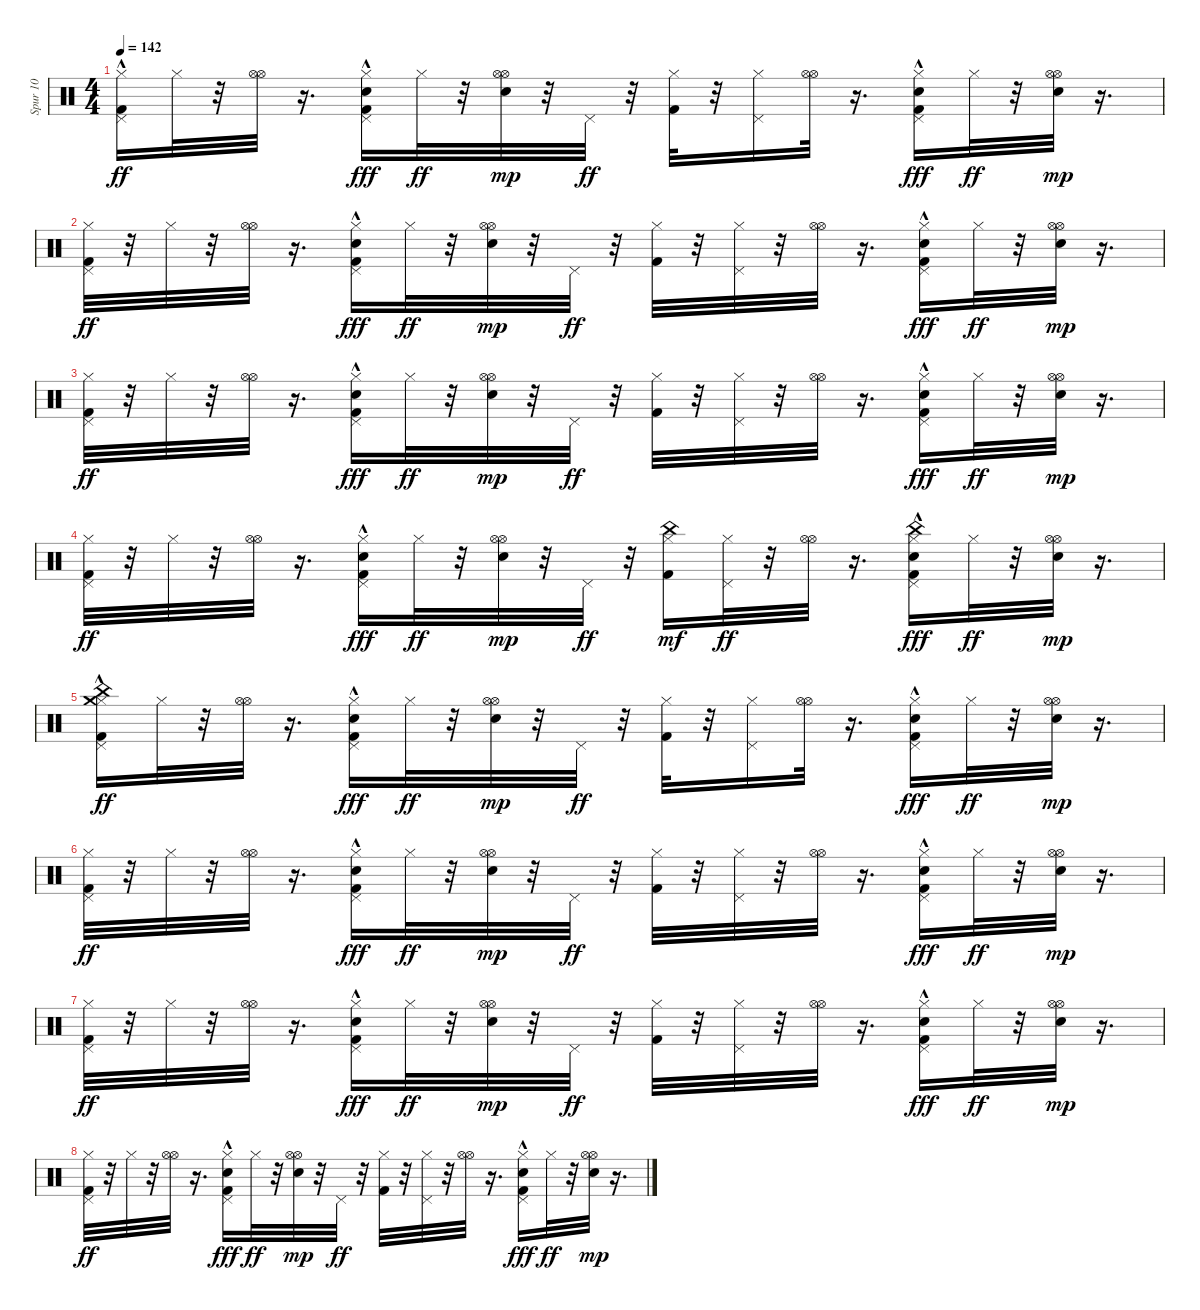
\track ("Spur 10" "Spur 10") {instrument percussion}
\staff {score}
\articulation defaults
\ts (4 4)
\tempo 142
\clef neutral
\ks c
("Kick (hit) 2"{hac} "Hi-Hat (closed)" "Pedal Hi-Hat (hit)").16{dy ff} "Hi-Hat (closed)".32 r.32 ("Hi-Hat (open)" "Hi-Hat (open)").32 r.16{d} ("Kick (hit) 2" "Hi-Hat (closed)" "Pedal Hi-Hat (hit)" "Hand Clap (hit)"{hac}).16{dy fff balance 16} "Hi-Hat (closed)".32{dy ff} r.32 ("Hi-Hat (open)" "Hi-Hat (open)" "Hand Clap (hit)").32{dy mp balance 0} r.32 "Pedal Hi-Hat (hit)".32{dy ff} r.32 ("Kick (hit) 2" "Hi-Hat (closed)").32 r.32 ("Hi-Hat (closed)" "Pedal Hi-Hat (hit)").16 ("Hi-Hat (open)" "Hi-Hat (open)").32 r.16{d} ("Kick (hit) 2" "Hi-Hat (closed)" "Pedal Hi-Hat (hit)" "Hand Clap (hit)"{hac}).16{dy fff balance 16} "Hi-Hat (closed)".32{dy ff} r.32 ("Hi-Hat (open)" "Hi-Hat (open)" "Hand Clap (hit)").32{dy mp balance 0} r.16{d} |
("Kick (hit) 2" "Hi-Hat (closed)" "Pedal Hi-Hat (hit)").32{dy ff} r.32 "Hi-Hat (closed)".32 r.32 ("Hi-Hat (open)" "Hi-Hat (open)").32 r.16{d} ("Kick (hit) 2" "Hi-Hat (closed)" "Pedal Hi-Hat (hit)" "Hand Clap (hit)"{hac}).16{dy fff balance 16} "Hi-Hat (closed)".32{dy ff} r.32 ("Hi-Hat (open)" "Hi-Hat (open)" "Hand Clap (hit)").32{dy mp balance 0} r.32 "Pedal Hi-Hat (hit)".32{dy ff} r.32 ("Kick (hit) 2" "Hi-Hat (closed)").32 r.32 ("Hi-Hat (closed)" "Pedal Hi-Hat (hit)").32 r.32 ("Hi-Hat (open)" "Hi-Hat (open)").32 r.16{d} ("Kick (hit) 2" "Hi-Hat (closed)" "Pedal Hi-Hat (hit)" "Hand Clap (hit)"{hac}).16{dy fff balance 16} "Hi-Hat (closed)".32{dy ff} r.32 ("Hi-Hat (open)" "Hi-Hat (open)" "Hand Clap (hit)").32{dy mp balance 0} r.16{d} |
("Kick (hit) 2" "Hi-Hat (closed)" "Pedal Hi-Hat (hit)").32{dy ff} r.32 "Hi-Hat (closed)".32 r.32 ("Hi-Hat (open)" "Hi-Hat (open)").32 r.16{d} ("Kick (hit) 2" "Hi-Hat (closed)" "Pedal Hi-Hat (hit)" "Hand Clap (hit)"{hac}).16{dy fff balance 16} "Hi-Hat (closed)".32{dy ff} r.32 ("Hi-Hat (open)" "Hi-Hat (open)" "Hand Clap (hit)").32{dy mp balance 0} r.32 "Pedal Hi-Hat (hit)".32{dy ff} r.32 ("Kick (hit) 2" "Hi-Hat (closed)").32 r.32 ("Hi-Hat (closed)" "Pedal Hi-Hat (hit)").32 r.32 ("Hi-Hat (open)" "Hi-Hat (open)").32 r.16{d} ("Kick (hit) 2" "Hi-Hat (closed)" "Pedal Hi-Hat (hit)" "Hand Clap (hit)"{hac}).16{dy fff balance 16} "Hi-Hat (closed)".32{dy ff} r.32 ("Hi-Hat (open)" "Hi-Hat (open)" "Hand Clap (hit)").32{dy mp balance 0} r.16{d} |
("Kick (hit) 2" "Hi-Hat (closed)" "Pedal Hi-Hat (hit)").32{dy ff} r.32 "Hi-Hat (closed)".32 r.32 ("Hi-Hat (open)" "Hi-Hat (open)").32 r.16{d} ("Kick (hit) 2" "Hi-Hat (closed)" "Pedal Hi-Hat (hit)" "Hand Clap (hit)"{hac}).16{dy fff balance 16} "Hi-Hat (closed)".32{dy ff} r.32 ("Hi-Hat (open)" "Hi-Hat (open)" "Hand Clap (hit)").32{dy mp balance 0} r.32 "Pedal Hi-Hat (hit)".32{dy ff} r.32 ("Kick (hit) 2" "Hi-Hat (closed)" "China (hit)").16{dy mf} ("Hi-Hat (closed)" "Pedal Hi-Hat (hit)").32{dy ff} r.32 ("Hi-Hat (open)" "Hi-Hat (open)").32 r.16{d} ("Kick (hit) 2" "Hi-Hat (closed)" "Pedal Hi-Hat (hit)" "China (hit)" "Hand Clap (hit)"{hac}).16{dy fff balance 16} "Hi-Hat (closed)".32{dy ff} r.32 ("Hi-Hat (open)" "Hi-Hat (open)" "Hand Clap (hit)").32{dy mp balance 0} r.16{d} |
("Kick (hit) 2"{hac} "Hi-Hat (closed)" "Pedal Hi-Hat (hit)" "China (hit)" "Crash medium (hit)").16{dy ff} "Hi-Hat (closed)".32 r.32 ("Hi-Hat (open)" "Hi-Hat (open)").32 r.16{d} ("Kick (hit) 2" "Hi-Hat (closed)" "Pedal Hi-Hat (hit)" "Hand Clap (hit)"{hac}).16{dy fff balance 16} "Hi-Hat (closed)".32{dy ff} r.32 ("Hi-Hat (open)" "Hi-Hat (open)" "Hand Clap (hit)").32{dy mp balance 0} r.32 "Pedal Hi-Hat (hit)".32{dy ff} r.32 ("Kick (hit) 2" "Hi-Hat (closed)").32 r.32 ("Hi-Hat (closed)" "Pedal Hi-Hat (hit)").16 ("Hi-Hat (open)" "Hi-Hat (open)").32 r.16{d} ("Kick (hit) 2" "Hi-Hat (closed)" "Pedal Hi-Hat (hit)" "Hand Clap (hit)"{hac}).16{dy fff balance 16} "Hi-Hat (closed)".32{dy ff} r.32 ("Hi-Hat (open)" "Hi-Hat (open)" "Hand Clap (hit)").32{dy mp balance 0} r.16{d} |
("Kick (hit) 2" "Hi-Hat (closed)" "Pedal Hi-Hat (hit)").32{dy ff} r.32 "Hi-Hat (closed)".32 r.32 ("Hi-Hat (open)" "Hi-Hat (open)").32 r.16{d} ("Kick (hit) 2" "Hi-Hat (closed)" "Pedal Hi-Hat (hit)" "Hand Clap (hit)"{hac}).16{dy fff balance 16} "Hi-Hat (closed)".32{dy ff} r.32 ("Hi-Hat (open)" "Hi-Hat (open)" "Hand Clap (hit)").32{dy mp balance 0} r.32 "Pedal Hi-Hat (hit)".32{dy ff} r.32 ("Kick (hit) 2" "Hi-Hat (closed)").32 r.32 ("Hi-Hat (closed)" "Pedal Hi-Hat (hit)").32 r.32 ("Hi-Hat (open)" "Hi-Hat (open)").32 r.16{d} ("Kick (hit) 2" "Hi-Hat (closed)" "Pedal Hi-Hat (hit)" "Hand Clap (hit)"{hac}).16{dy fff balance 16} "Hi-Hat (closed)".32{dy ff} r.32 ("Hi-Hat (open)" "Hi-Hat (open)" "Hand Clap (hit)").32{dy mp balance 0} r.16{d} |
("Kick (hit) 2" "Hi-Hat (closed)" "Pedal Hi-Hat (hit)").32{dy ff} r.32 "Hi-Hat (closed)".32 r.32 ("Hi-Hat (open)" "Hi-Hat (open)").32 r.16{d} ("Kick (hit) 2" "Hi-Hat (closed)" "Pedal Hi-Hat (hit)" "Hand Clap (hit)"{hac}).16{dy fff balance 16} "Hi-Hat (closed)".32{dy ff} r.32 ("Hi-Hat (open)" "Hi-Hat (open)" "Hand Clap (hit)").32{dy mp balance 0} r.32 "Pedal Hi-Hat (hit)".32{dy ff} r.32 ("Kick (hit) 2" "Hi-Hat (closed)").32 r.32 ("Hi-Hat (closed)" "Pedal Hi-Hat (hit)").32 r.32 ("Hi-Hat (open)" "Hi-Hat (open)").32 r.16{d} ("Kick (hit) 2" "Hi-Hat (closed)" "Pedal Hi-Hat (hit)" "Hand Clap (hit)"{hac}).16{dy fff balance 16} "Hi-Hat (closed)".32{dy ff} r.32 ("Hi-Hat (open)" "Hi-Hat (open)" "Hand Clap (hit)").32{dy mp balance 0} r.16{d} |
("Kick (hit) 2" "Hi-Hat (closed)" "Pedal Hi-Hat (hit)").32{dy ff} r.32 "Hi-Hat (closed)".32 r.32 ("Hi-Hat (open)" "Hi-Hat (open)").32 r.16{d} ("Kick (hit) 2" "Hi-Hat (closed)" "Pedal Hi-Hat (hit)" "Hand Clap (hit)"{hac}).16{dy fff balance 16} "Hi-Hat (closed)".32{dy ff} r.32 ("Hi-Hat (open)" "Hi-Hat (open)" "Hand Clap (hit)").32{dy mp balance 0} r.32 "Pedal Hi-Hat (hit)".32{dy ff} r.32 ("Kick (hit) 2" "Hi-Hat (closed)").32 r.32 ("Hi-Hat (closed)" "Pedal Hi-Hat (hit)").32 r.32 ("Hi-Hat (open)" "Hi-Hat (open)").32 r.16{d} ("Kick (hit) 2" "Hi-Hat (closed)" "Pedal Hi-Hat (hit)" "Hand Clap (hit)"{hac}).16{dy fff balance 16} "Hi-Hat (closed)".32{dy ff} r.32 ("Hi-Hat (open)" "Hi-Hat (open)" "Hand Clap (hit)").32{dy mp balance 0} r.16{d}
